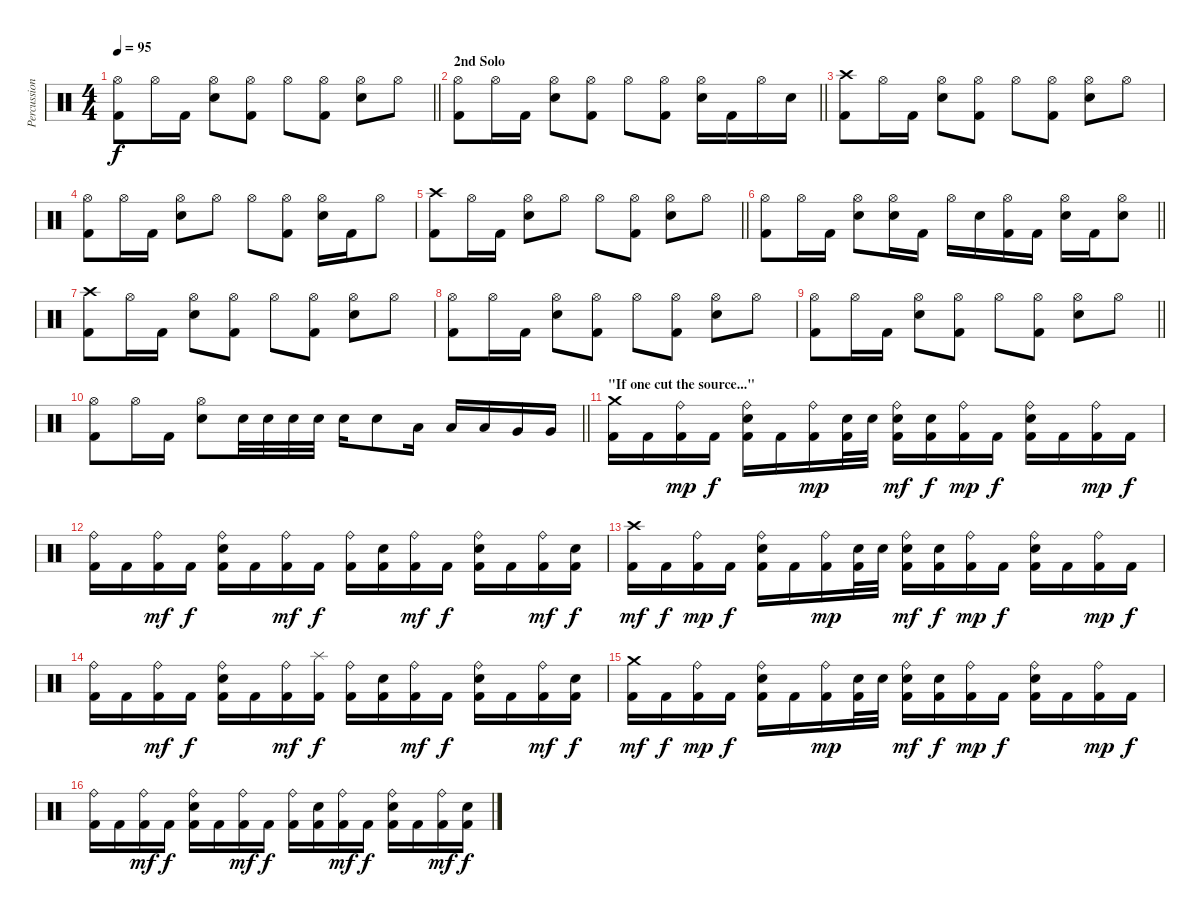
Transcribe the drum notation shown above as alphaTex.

\track ("Percussion" "Percussion") {instrument percussion}
\staff {score}
\articulation defaults
\ts (4 4)
\tempo 95
\clef neutral
\barLineRight lightlight
\ks c
("Hi-Hat (open)" "Kick (hit) 2").8{dy f} "Hi-Hat (open)".16 "Kick (hit) 2".16 ("Hi-Hat (open)" "Electric Snare (hit)").8 ("Hi-Hat (open)" "Kick (hit) 2").8 "Hi-Hat (open)".8 ("Hi-Hat (open)" "Kick (hit) 2").8 ("Hi-Hat (open)" "Electric Snare (hit)").8 "Hi-Hat (open)".8 |
\section ("" "2nd Solo")
\barLineRight lightlight
("Hi-Hat (open)" "Kick (hit) 2").8 "Hi-Hat (open)".16 "Kick (hit) 2".16 ("Hi-Hat (open)" "Electric Snare (hit)").8 ("Hi-Hat (open)" "Kick (hit) 2").8 "Hi-Hat (open)".8 ("Hi-Hat (open)" "Kick (hit) 2").8 ("Hi-Hat (open)" "Electric Snare (hit)").16 "Kick (hit) 2".16 "Hi-Hat (open)".16 "Electric Snare (hit)".16 |
("Crash high (hit)" "Kick (hit) 2").8 "Hi-Hat (open)".16 "Kick (hit) 2".16 ("Hi-Hat (open)" "Electric Snare (hit)").8 ("Hi-Hat (open)" "Kick (hit) 2").8 "Hi-Hat (open)".8 ("Hi-Hat (open)" "Kick (hit) 2").8 ("Hi-Hat (open)" "Electric Snare (hit)").8 "Hi-Hat (open)".8 |
("Hi-Hat (open)" "Kick (hit) 2").8 "Hi-Hat (open)".16 "Kick (hit) 2".16 ("Hi-Hat (open)" "Electric Snare (hit)").8 "Hi-Hat (open)".8 "Hi-Hat (open)".8 ("Hi-Hat (open)" "Kick (hit) 2").8 ("Hi-Hat (open)" "Electric Snare (hit)").16 "Kick (hit) 2".16 "Hi-Hat (open)".8 |
\barLineRight lightlight
("Crash high (hit)" "Kick (hit) 2").8 "Hi-Hat (open)".16 "Kick (hit) 2".16 ("Hi-Hat (open)" "Electric Snare (hit)").8 "Hi-Hat (open)".8 "Hi-Hat (open)".8 ("Hi-Hat (open)" "Kick (hit) 2").8 ("Hi-Hat (open)" "Electric Snare (hit)").8 "Hi-Hat (open)".8 |
\barLineRight lightlight
("Hi-Hat (open)" "Kick (hit) 2").8 "Hi-Hat (open)".16 "Kick (hit) 2".16 ("Hi-Hat (open)" "Electric Snare (hit)").8 ("Hi-Hat (open)" "Electric Snare (hit)").16 "Kick (hit) 2".16 "Hi-Hat (open)".16 "Electric Snare (hit)".16 ("Hi-Hat (open)" "Kick (hit) 2").16 "Kick (hit) 2".16 ("Hi-Hat (open)" "Electric Snare (hit)").16 "Kick (hit) 2".16 ("Hi-Hat (open)" "Electric Snare (hit)").8 |
("Crash high (hit)" "Kick (hit) 2").8 "Hi-Hat (open)".16 "Kick (hit) 2".16 ("Hi-Hat (open)" "Electric Snare (hit)").8 ("Hi-Hat (open)" "Kick (hit) 2").8 "Hi-Hat (open)".8 ("Hi-Hat (open)" "Kick (hit) 2").8 ("Hi-Hat (open)" "Electric Snare (hit)").8 "Hi-Hat (open)".8 |
("Hi-Hat (open)" "Kick (hit) 2").8 "Hi-Hat (open)".16 "Kick (hit) 2".16 ("Hi-Hat (open)" "Electric Snare (hit)").8 ("Hi-Hat (open)" "Kick (hit) 2").8 "Hi-Hat (open)".8 ("Hi-Hat (open)" "Kick (hit) 2").8 ("Hi-Hat (open)" "Electric Snare (hit)").8 "Hi-Hat (open)".8 |
\barLineRight lightlight
("Hi-Hat (open)" "Kick (hit) 2").8 "Hi-Hat (open)".16 "Kick (hit) 2".16 ("Hi-Hat (open)" "Electric Snare (hit)").8 ("Hi-Hat (open)" "Kick (hit) 2").8 "Hi-Hat (open)".8 ("Hi-Hat (open)" "Kick (hit) 2").8 ("Hi-Hat (open)" "Electric Snare (hit)").8 "Hi-Hat (open)".8 |
\barLineRight lightlight
("Hi-Hat (open)" "Kick (hit) 2").8 "Hi-Hat (open)".16 "Kick (hit) 2".16 ("Hi-Hat (open)" "Electric Snare (hit)").8 "Electric Snare (hit)".32 "Electric Snare (hit)".32 "Electric Snare (hit)".32 "Electric Snare (hit)".32 "Electric Snare (hit)".16 "Electric Snare (hit)".8 "Low Floor Tom (hit)".16 "Low Tom (hit)".16 "Low Tom (hit)".16 "Very Low Tom (hit)".16 "Very Low Tom (hit)".16 |
\section ("" "\"If one cut the source...\"")
("Crash medium (hit)" "Kick (hit) 2").16 "Kick (hit) 2".16 ("Ride (bell)" "Kick (hit) 2").16{dy mp} "Kick (hit) 2".16{dy f} ("Ride (bell)" "Electric Snare (hit)" "Kick (hit) 2").16 "Kick (hit) 2".16 ("Ride (bell)" "Kick (hit) 2").16{dy mp} ("Electric Snare (hit)" "Kick (hit) 2").32 "Electric Snare (hit)".32 ("Ride (bell)" "Electric Snare (hit)" "Kick (hit) 2").16{dy mf} ("Electric Snare (hit)" "Kick (hit) 2").16{dy f} ("Ride (bell)" "Kick (hit) 2").16{dy mp} "Kick (hit) 2".16{dy f} ("Ride (bell)" "Electric Snare (hit)" "Kick (hit) 2").16 "Kick (hit) 2".16 ("Ride (bell)" "Kick (hit) 2").16{dy mp} "Kick (hit) 2".16{dy f} |
("Ride (bell)" "Kick (hit) 2").16 "Kick (hit) 2".16 ("Ride (bell)" "Kick (hit) 2").16{dy mf} "Kick (hit) 2".16{dy f} ("Ride (bell)" "Electric Snare (hit)" "Kick (hit) 2").16 "Kick (hit) 2".16 ("Ride (bell)" "Kick (hit) 2").16{dy mf} "Kick (hit) 2".16{dy f} ("Ride (bell)" "Kick (hit) 2").16 ("Electric Snare (hit)" "Kick (hit) 2").16 ("Ride (bell)" "Kick (hit) 2").16{dy mf} "Kick (hit) 2".16{dy f} ("Ride (bell)" "Electric Snare (hit)" "Kick (hit) 2").16 "Kick (hit) 2".16 ("Ride (bell)" "Kick (hit) 2").16{dy mf} ("Electric Snare (hit)" "Kick (hit) 2").16{dy f} |
("Crash high (hit)" "Kick (hit) 2").16{dy mf} "Kick (hit) 2".16{dy f} ("Ride (bell)" "Kick (hit) 2").16{dy mp} "Kick (hit) 2".16{dy f} ("Ride (bell)" "Electric Snare (hit)" "Kick (hit) 2").16 "Kick (hit) 2".16 ("Ride (bell)" "Kick (hit) 2").16{dy mp} ("Electric Snare (hit)" "Kick (hit) 2").32 "Electric Snare (hit)".32 ("Ride (bell)" "Electric Snare (hit)" "Kick (hit) 2").16{dy mf} ("Electric Snare (hit)" "Kick (hit) 2").16{dy f} ("Ride (bell)" "Kick (hit) 2").16{dy mp} "Kick (hit) 2".16{dy f} ("Ride (bell)" "Electric Snare (hit)" "Kick (hit) 2").16 "Kick (hit) 2".16 ("Ride (bell)" "Kick (hit) 2").16{dy mp} "Kick (hit) 2".16{dy f} |
("Ride (bell)" "Kick (hit) 2").16 "Kick (hit) 2".16 ("Ride (bell)" "Kick (hit) 2").16{dy mf} "Kick (hit) 2".16{dy f} ("Ride (bell)" "Electric Snare (hit)" "Kick (hit) 2").16 "Kick (hit) 2".16 ("Ride (bell)" "Kick (hit) 2").16{dy mf} ("Splash (hit)" "Kick (hit) 2").16{dy f} ("Ride (bell)" "Kick (hit) 2").16 ("Electric Snare (hit)" "Kick (hit) 2").16 ("Ride (bell)" "Kick (hit) 2").16{dy mf} "Kick (hit) 2".16{dy f} ("Ride (bell)" "Electric Snare (hit)" "Kick (hit) 2").16 "Kick (hit) 2".16 ("Ride (bell)" "Kick (hit) 2").16{dy mf} ("Electric Snare (hit)" "Kick (hit) 2").16{dy f} |
("Crash medium (hit)" "Kick (hit) 2").16{dy mf} "Kick (hit) 2".16{dy f} ("Ride (bell)" "Kick (hit) 2").16{dy mp} "Kick (hit) 2".16{dy f} ("Ride (bell)" "Electric Snare (hit)" "Kick (hit) 2").16 "Kick (hit) 2".16 ("Ride (bell)" "Kick (hit) 2").16{dy mp} ("Electric Snare (hit)" "Kick (hit) 2").32 "Electric Snare (hit)".32 ("Ride (bell)" "Electric Snare (hit)" "Kick (hit) 2").16{dy mf} ("Electric Snare (hit)" "Kick (hit) 2").16{dy f} ("Ride (bell)" "Kick (hit) 2").16{dy mp} "Kick (hit) 2".16{dy f} ("Ride (bell)" "Electric Snare (hit)" "Kick (hit) 2").16 "Kick (hit) 2".16 ("Ride (bell)" "Kick (hit) 2").16{dy mp} "Kick (hit) 2".16{dy f} |
("Ride (bell)" "Kick (hit) 2").16 "Kick (hit) 2".16 ("Ride (bell)" "Kick (hit) 2").16{dy mf} "Kick (hit) 2".16{dy f} ("Ride (bell)" "Electric Snare (hit)" "Kick (hit) 2").16 "Kick (hit) 2".16 ("Ride (bell)" "Kick (hit) 2").16{dy mf} "Kick (hit) 2".16{dy f} ("Ride (bell)" "Kick (hit) 2").16 ("Electric Snare (hit)" "Kick (hit) 2").16 ("Ride (bell)" "Kick (hit) 2").16{dy mf} "Kick (hit) 2".16{dy f} ("Ride (bell)" "Electric Snare (hit)" "Kick (hit) 2").16 "Kick (hit) 2".16 ("Ride (bell)" "Kick (hit) 2").16{dy mf} ("Electric Snare (hit)" "Kick (hit) 2").16{dy f}
